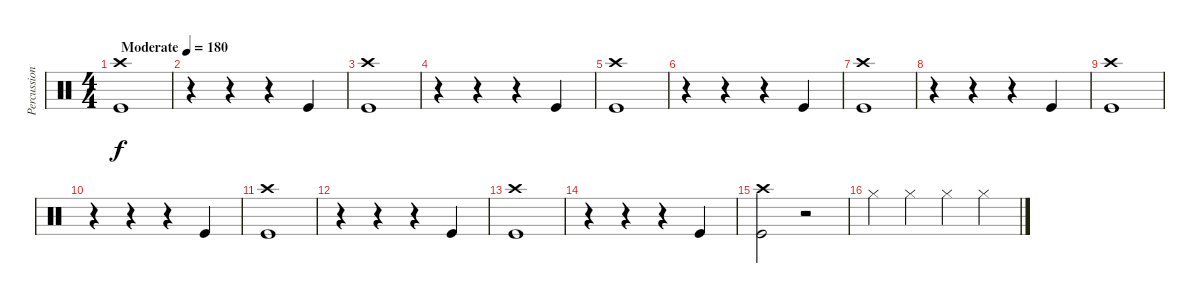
\track ("Percussion" "Percussion") {instrument percussion}
\staff {score}
\articulation defaults
\ts (4 4)
\tempo (180 "Moderate")
\clef neutral
\ks c
("Crash high (hit)" "Kick (hit)").1{dy f} |
r.4 r.4 r.4 "Kick (hit)".4 |
("Kick (hit)" "Crash high (hit)").1 |
r.4 r.4 r.4 "Kick (hit)".4 |
("Crash high (hit)" "Kick (hit)").1 |
r.4 r.4 r.4 "Kick (hit)".4 |
("Kick (hit)" "Crash high (hit)").1 |
r.4 r.4 r.4 "Kick (hit)".4 |
("Crash high (hit)" "Kick (hit)").1 |
r.4 r.4 r.4 "Kick (hit)".4 |
("Kick (hit)" "Crash high (hit)").1 |
r.4 r.4 r.4 "Kick (hit)".4 |
("Crash high (hit)" "Kick (hit)").1 |
r.4 r.4 r.4 "Kick (hit)".4 |
("Crash high (hit)" "Kick (hit)").2 r.2 |
"Hi-Hat (closed)".4 "Hi-Hat (closed)".4 "Hi-Hat (closed)".4 "Hi-Hat (closed)".4
